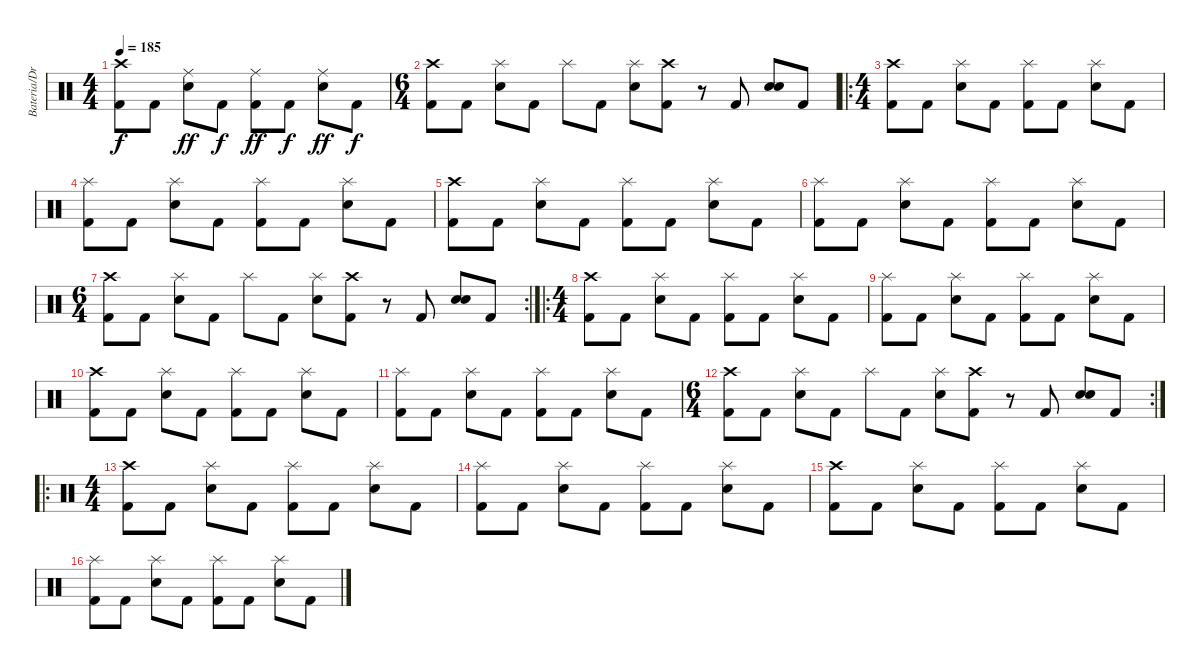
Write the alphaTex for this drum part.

\track ("Bateria/Drums" "Bateria/Dr") {instrument percussion}
\staff {score}
\articulation defaults
\ts (4 4)
\tempo 185
\clef neutral
\ks c
("Kick (hit) 2" "Crash high (hit)").8{dy f} "Kick (hit) 2".8 ("Electric Snare (hit)" "Ride (middle)").8{dy ff} "Kick (hit) 2".8{dy f} ("Kick (hit) 2" "Ride (middle)").8{dy ff} "Kick (hit) 2".8{dy f} ("Electric Snare (hit)" "Ride (middle)").8{dy ff} "Kick (hit) 2".8{dy f} |
\ts (6 4)
("Kick (hit) 2" "Crash high (hit)").8 "Kick (hit) 2".8 ("Electric Snare (hit)" "Splash (hit)").8 "Kick (hit) 2".8 "Splash (hit)".8 "Kick (hit) 2".8 ("Electric Snare (hit)" "Splash (hit)").8 ("Kick (hit) 2" "Crash high (hit)").8 r.8 "Kick (hit) 2".8 ("Electric Snare (hit)" "Electric Snare (hit)").8{bd 480} "Kick (hit) 2".8 |
\ro
\ts (4 4)
("Kick (hit) 2" "Crash high (hit)").8 "Kick (hit) 2".8 ("Electric Snare (hit)" "Splash (hit)").8 "Kick (hit) 2".8 ("Kick (hit) 2" "Splash (hit)").8 "Kick (hit) 2".8 ("Electric Snare (hit)" "Splash (hit)").8 "Kick (hit) 2".8 |
("Kick (hit) 2" "Splash (hit)").8 "Kick (hit) 2".8 ("Electric Snare (hit)" "Splash (hit)").8 "Kick (hit) 2".8 ("Kick (hit) 2" "Splash (hit)").8 "Kick (hit) 2".8 ("Electric Snare (hit)" "Splash (hit)").8 "Kick (hit) 2".8 |
("Kick (hit) 2" "Crash high (hit)").8 "Kick (hit) 2".8 ("Electric Snare (hit)" "Splash (hit)").8 "Kick (hit) 2".8 ("Kick (hit) 2" "Splash (hit)").8 "Kick (hit) 2".8 ("Electric Snare (hit)" "Splash (hit)").8 "Kick (hit) 2".8 |
("Kick (hit) 2" "Splash (hit)").8 "Kick (hit) 2".8 ("Electric Snare (hit)" "Splash (hit)").8 "Kick (hit) 2".8 ("Kick (hit) 2" "Splash (hit)").8 "Kick (hit) 2".8 ("Electric Snare (hit)" "Splash (hit)").8 "Kick (hit) 2".8 |
\rc 2
\ts (6 4)
("Kick (hit) 2" "Crash high (hit)").8 "Kick (hit) 2".8 ("Electric Snare (hit)" "Splash (hit)").8 "Kick (hit) 2".8 "Splash (hit)".8 "Kick (hit) 2".8 ("Electric Snare (hit)" "Splash (hit)").8 ("Kick (hit) 2" "Crash high (hit)").8 r.8 "Kick (hit) 2".8 ("Electric Snare (hit)" "Electric Snare (hit)").8{bd 480} "Kick (hit) 2".8 |
\ro
\ts (4 4)
("Kick (hit) 2" "Crash high (hit)").8 "Kick (hit) 2".8 ("Electric Snare (hit)" "Splash (hit)").8 "Kick (hit) 2".8 ("Kick (hit) 2" "Splash (hit)").8 "Kick (hit) 2".8 ("Electric Snare (hit)" "Splash (hit)").8 "Kick (hit) 2".8 |
("Kick (hit) 2" "Splash (hit)").8 "Kick (hit) 2".8 ("Electric Snare (hit)" "Splash (hit)").8 "Kick (hit) 2".8 ("Kick (hit) 2" "Splash (hit)").8 "Kick (hit) 2".8 ("Electric Snare (hit)" "Splash (hit)").8 "Kick (hit) 2".8 |
("Kick (hit) 2" "Crash high (hit)").8 "Kick (hit) 2".8 ("Electric Snare (hit)" "Splash (hit)").8 "Kick (hit) 2".8 ("Kick (hit) 2" "Splash (hit)").8 "Kick (hit) 2".8 ("Electric Snare (hit)" "Splash (hit)").8 "Kick (hit) 2".8 |
("Kick (hit) 2" "Splash (hit)").8 "Kick (hit) 2".8 ("Electric Snare (hit)" "Splash (hit)").8 "Kick (hit) 2".8 ("Kick (hit) 2" "Splash (hit)").8 "Kick (hit) 2".8 ("Electric Snare (hit)" "Splash (hit)").8 "Kick (hit) 2".8 |
\rc 2
\ts (6 4)
("Kick (hit) 2" "Crash high (hit)").8 "Kick (hit) 2".8 ("Electric Snare (hit)" "Splash (hit)").8 "Kick (hit) 2".8 "Splash (hit)".8 "Kick (hit) 2".8 ("Electric Snare (hit)" "Splash (hit)").8 ("Kick (hit) 2" "Crash high (hit)").8 r.8 "Kick (hit) 2".8 ("Electric Snare (hit)" "Electric Snare (hit)").8{bd 480} "Kick (hit) 2".8 |
\ro
\ts (4 4)
("Kick (hit) 2" "Crash high (hit)").8 "Kick (hit) 2".8 ("Electric Snare (hit)" "Splash (hit)").8 "Kick (hit) 2".8 ("Kick (hit) 2" "Splash (hit)").8 "Kick (hit) 2".8 ("Electric Snare (hit)" "Splash (hit)").8 "Kick (hit) 2".8 |
("Kick (hit) 2" "Splash (hit)").8 "Kick (hit) 2".8 ("Electric Snare (hit)" "Splash (hit)").8 "Kick (hit) 2".8 ("Kick (hit) 2" "Splash (hit)").8 "Kick (hit) 2".8 ("Electric Snare (hit)" "Splash (hit)").8 "Kick (hit) 2".8 |
("Kick (hit) 2" "Crash high (hit)").8 "Kick (hit) 2".8 ("Electric Snare (hit)" "Splash (hit)").8 "Kick (hit) 2".8 ("Kick (hit) 2" "Splash (hit)").8 "Kick (hit) 2".8 ("Electric Snare (hit)" "Splash (hit)").8 "Kick (hit) 2".8 |
("Kick (hit) 2" "Splash (hit)").8 "Kick (hit) 2".8 ("Electric Snare (hit)" "Splash (hit)").8 "Kick (hit) 2".8 ("Kick (hit) 2" "Splash (hit)").8 "Kick (hit) 2".8 ("Electric Snare (hit)" "Splash (hit)").8 "Kick (hit) 2".8
